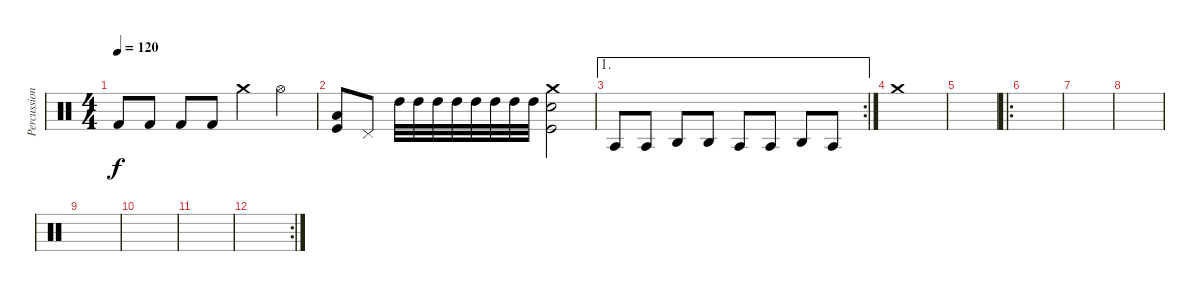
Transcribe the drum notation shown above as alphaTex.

\track ("Percussion" "Percussion") {instrument percussion}
\staff {score}
\articulation defaults
\ts (4 4)
\tempo 120
\clef neutral
\ks c "Kick (hit) 2".8{dy f} "Kick (hit) 2".8 "Kick (hit) 2".8 "Kick (hit) 2".8 "Crash medium (hit)".4 "Hi-Hat (open)".4
|
("Kick (hit)" "Low Tom (hit)").8 "Pedal Hi-Hat (hit)".8 "High Tom (hit)".32 "High Tom (hit)".32 "High Tom (hit)".32 "High Tom (hit)".32 "High Tom (hit)".32 "High Tom (hit)".32 "High Tom (hit)".32 "High Tom (hit)".32 ("Kick (hit)" "Crash medium (hit)" "Snare (hit) 2").2 |
\ae 1
\rc 2 "Agogo tow (hit)".8 "Agogo tow (hit)".8 "Agogo high (hit)".8 "Agogo high (hit)".8 "Agogo tow (hit)".8 "Agogo tow (hit)".8 "Agogo high (hit)".8 "Agogo tow (hit)".8
|
"Crash medium (hit)".1 |
|
\ro
|
|
|
|
|
|
\rc 2
